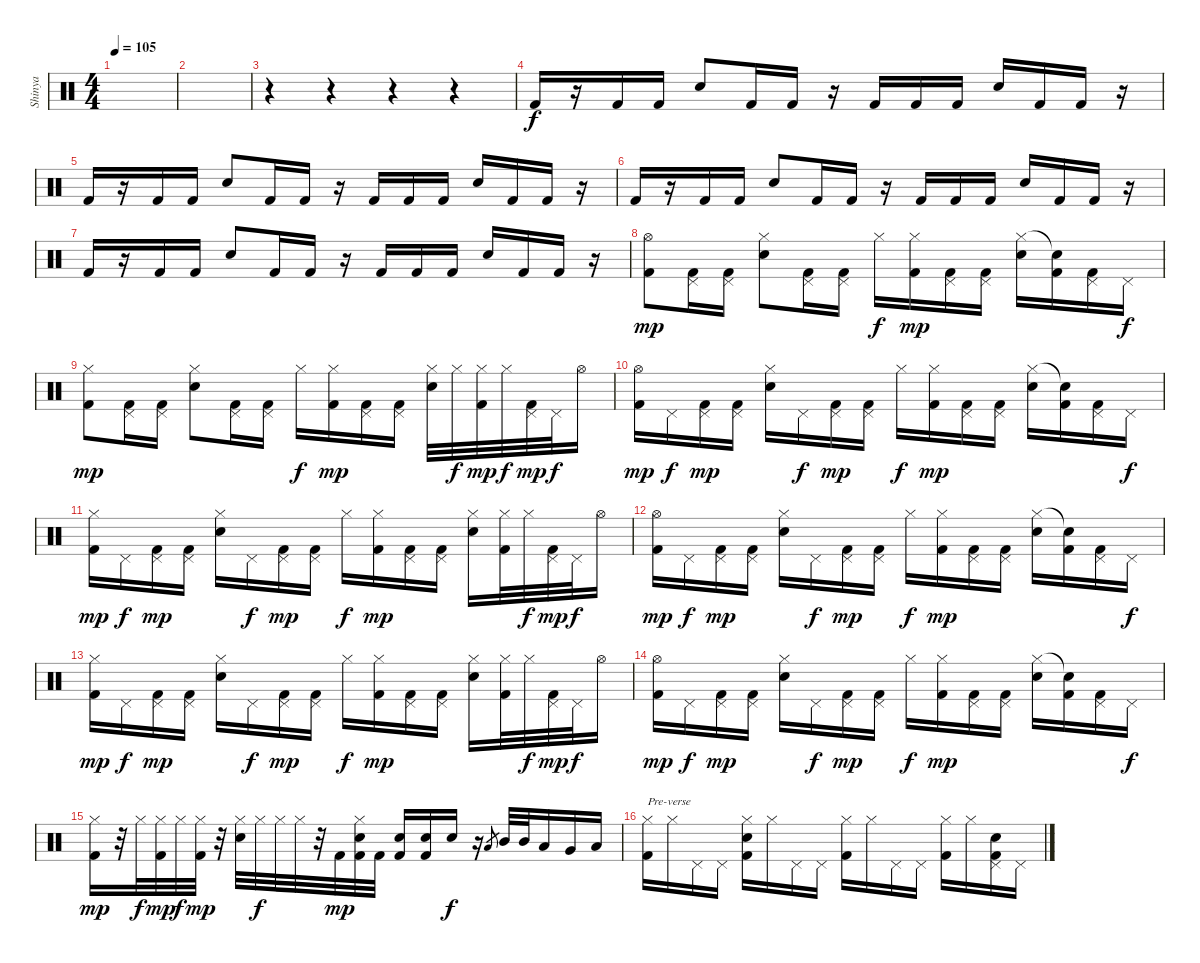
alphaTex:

\track ("Shinya" "Shinya") {instrument percussion}
\staff {score}
\articulation defaults
\ts (4 4)
\tempo 105
\clef neutral
\ks c
|
|
r.4 r.4 r.4 r.4 |
"Kick (hit) 2".16{volume 8} r.16 "Kick (hit) 2".16 "Kick (hit) 2".16 "Electric Snare (hit)".8{volume 11} "Kick (hit) 2".16 "Kick (hit) 2".16 r.16 "Kick (hit) 2".16 "Kick (hit) 2".16 "Kick (hit) 2".16 "Electric Snare (hit)".16 "Kick (hit) 2".16 "Kick (hit) 2".16 r.16 |
"Kick (hit) 2".16 r.16 "Kick (hit) 2".16 "Kick (hit) 2".16 "Electric Snare (hit)".8 "Kick (hit) 2".16 "Kick (hit) 2".16 r.16 "Kick (hit) 2".16 "Kick (hit) 2".16 "Kick (hit) 2".16 "Electric Snare (hit)".16 "Kick (hit) 2".16 "Kick (hit) 2".16 r.16 |
"Kick (hit) 2".16 r.16 "Kick (hit) 2".16 "Kick (hit) 2".16 "Electric Snare (hit)".8 "Kick (hit) 2".16 "Kick (hit) 2".16 r.16 "Kick (hit) 2".16 "Kick (hit) 2".16 "Kick (hit) 2".16 "Electric Snare (hit)".16 "Kick (hit) 2".16 "Kick (hit) 2".16 r.16 |
"Kick (hit) 2".16{volume 14} r.16 "Kick (hit) 2".16 "Kick (hit) 2".16 "Electric Snare (hit)".8 "Kick (hit) 2".16 "Kick (hit) 2".16 r.16 "Kick (hit) 2".16 "Kick (hit) 2".16 "Kick (hit) 2".16 "Electric Snare (hit)".16 "Kick (hit) 2".16 "Kick (hit) 2".16 r.16 |
("Hi-Hat (open)" "Kick (hit) 2").8{dy mp} ("Pedal Hi-Hat (hit)" "Kick (hit) 2").16 ("Pedal Hi-Hat (hit)" "Kick (hit) 2").16 ("Hi-Hat (closed)" "Electric Snare (hit)").8 ("Pedal Hi-Hat (hit)" "Kick (hit) 2").16 ("Pedal Hi-Hat (hit)" "Kick (hit) 2").16 "Hi-Hat (closed)".16{dy f} ("Hi-Hat (closed)" "Kick (hit) 2").16{dy mp} ("Pedal Hi-Hat (hit)" "Kick (hit) 2").16 ("Pedal Hi-Hat (hit)" "Kick (hit) 2").16 ("Hi-Hat (closed)" "Electric Snare (hit)").16 ("Snare (hit)"{t} "Kick (hit) 2").16 ("Pedal Hi-Hat (hit)" "Kick (hit) 2").16 "Pedal Hi-Hat (hit)".16{dy f} |
("Hi-Hat (closed)" "Kick (hit) 2").8{dy mp} ("Pedal Hi-Hat (hit)" "Kick (hit) 2").16 ("Pedal Hi-Hat (hit)" "Kick (hit) 2").16 ("Hi-Hat (closed)" "Electric Snare (hit)").8 ("Pedal Hi-Hat (hit)" "Kick (hit) 2").16 ("Pedal Hi-Hat (hit)" "Kick (hit) 2").16 "Hi-Hat (closed)".16{dy f} ("Hi-Hat (closed)" "Kick (hit) 2").16{dy mp} ("Pedal Hi-Hat (hit)" "Kick (hit) 2").16 ("Pedal Hi-Hat (hit)" "Kick (hit) 2").16 ("Hi-Hat (closed)" "Electric Snare (hit)").32 "Hi-Hat (closed)".32{dy f} ("Hi-Hat (closed)" "Kick (hit) 2").32{dy mp} "Hi-Hat (closed)".32{dy f} ("Pedal Hi-Hat (hit)" "Kick (hit) 2").32{dy mp} "Pedal Hi-Hat (hit)".32{dy f} "Hi-Hat (open)".16 |
("Hi-Hat (open)" "Kick (hit) 2").16{dy mp} "Pedal Hi-Hat (hit)".16{dy f} ("Pedal Hi-Hat (hit)" "Kick (hit) 2").16{dy mp} ("Pedal Hi-Hat (hit)" "Kick (hit) 2").16 ("Hi-Hat (closed)" "Electric Snare (hit)").16 "Pedal Hi-Hat (hit)".16{dy f} ("Pedal Hi-Hat (hit)" "Kick (hit) 2").16{dy mp} ("Pedal Hi-Hat (hit)" "Kick (hit) 2").16 "Hi-Hat (closed)".16{dy f} ("Hi-Hat (closed)" "Kick (hit) 2").16{dy mp} ("Pedal Hi-Hat (hit)" "Kick (hit) 2").16 ("Pedal Hi-Hat (hit)" "Kick (hit) 2").16 ("Hi-Hat (closed)" "Electric Snare (hit)").16 ("Snare (hit)"{t} "Kick (hit) 2").16 ("Pedal Hi-Hat (hit)" "Kick (hit) 2").16 "Pedal Hi-Hat (hit)".16{dy f} |
("Hi-Hat (closed)" "Kick (hit) 2").16{dy mp} "Pedal Hi-Hat (hit)".16{dy f} ("Pedal Hi-Hat (hit)" "Kick (hit) 2").16{dy mp} ("Pedal Hi-Hat (hit)" "Kick (hit) 2").16 ("Hi-Hat (closed)" "Electric Snare (hit)").16 "Pedal Hi-Hat (hit)".16{dy f} ("Pedal Hi-Hat (hit)" "Kick (hit) 2").16{dy mp} ("Pedal Hi-Hat (hit)" "Kick (hit) 2").16 "Hi-Hat (closed)".16{dy f} ("Hi-Hat (closed)" "Kick (hit) 2").16{dy mp} ("Pedal Hi-Hat (hit)" "Kick (hit) 2").16 ("Pedal Hi-Hat (hit)" "Kick (hit) 2").16 ("Hi-Hat (closed)" "Electric Snare (hit)").16 ("Hi-Hat (closed)" "Kick (hit) 2").32 "Hi-Hat (closed)".32{dy f} ("Pedal Hi-Hat (hit)" "Kick (hit) 2").32{dy mp} "Pedal Hi-Hat (hit)".32{dy f} "Hi-Hat (open)".16 |
("Hi-Hat (open)" "Kick (hit) 2").16{dy mp} "Pedal Hi-Hat (hit)".16{dy f} ("Pedal Hi-Hat (hit)" "Kick (hit) 2").16{dy mp} ("Pedal Hi-Hat (hit)" "Kick (hit) 2").16 ("Hi-Hat (closed)" "Electric Snare (hit)").16 "Pedal Hi-Hat (hit)".16{dy f} ("Pedal Hi-Hat (hit)" "Kick (hit) 2").16{dy mp} ("Pedal Hi-Hat (hit)" "Kick (hit) 2").16 "Hi-Hat (closed)".16{dy f} ("Hi-Hat (closed)" "Kick (hit) 2").16{dy mp} ("Pedal Hi-Hat (hit)" "Kick (hit) 2").16 ("Pedal Hi-Hat (hit)" "Kick (hit) 2").16 ("Hi-Hat (closed)" "Electric Snare (hit)").16 ("Snare (hit)"{t} "Kick (hit) 2").16 ("Pedal Hi-Hat (hit)" "Kick (hit) 2").16 "Pedal Hi-Hat (hit)".16{dy f} |
("Hi-Hat (closed)" "Kick (hit) 2").16{dy mp} "Pedal Hi-Hat (hit)".16{dy f} ("Pedal Hi-Hat (hit)" "Kick (hit) 2").16{dy mp} ("Pedal Hi-Hat (hit)" "Kick (hit) 2").16 ("Hi-Hat (closed)" "Electric Snare (hit)").16 "Pedal Hi-Hat (hit)".16{dy f} ("Pedal Hi-Hat (hit)" "Kick (hit) 2").16{dy mp} ("Pedal Hi-Hat (hit)" "Kick (hit) 2").16 "Hi-Hat (closed)".16{dy f} ("Hi-Hat (closed)" "Kick (hit) 2").16{dy mp} ("Pedal Hi-Hat (hit)" "Kick (hit) 2").16 ("Pedal Hi-Hat (hit)" "Kick (hit) 2").16 ("Hi-Hat (closed)" "Electric Snare (hit)").16 ("Hi-Hat (closed)" "Kick (hit) 2").32 "Hi-Hat (closed)".32{dy f} ("Pedal Hi-Hat (hit)" "Kick (hit) 2").32{dy mp} "Pedal Hi-Hat (hit)".32{dy f} "Hi-Hat (open)".16 |
("Hi-Hat (open)" "Kick (hit) 2").16{dy mp} "Pedal Hi-Hat (hit)".16{dy f} ("Pedal Hi-Hat (hit)" "Kick (hit) 2").16{dy mp} ("Pedal Hi-Hat (hit)" "Kick (hit) 2").16 ("Hi-Hat (closed)" "Electric Snare (hit)").16 "Pedal Hi-Hat (hit)".16{dy f} ("Pedal Hi-Hat (hit)" "Kick (hit) 2").16{dy mp} ("Pedal Hi-Hat (hit)" "Kick (hit) 2").16 "Hi-Hat (closed)".16{dy f} ("Hi-Hat (closed)" "Kick (hit) 2").16{dy mp} ("Pedal Hi-Hat (hit)" "Kick (hit) 2").16 ("Pedal Hi-Hat (hit)" "Kick (hit) 2").16 ("Hi-Hat (closed)" "Electric Snare (hit)").16 ("Snare (hit)"{t} "Kick (hit) 2").16 ("Pedal Hi-Hat (hit)" "Kick (hit) 2").16 "Pedal Hi-Hat (hit)".16{dy f} |
("Hi-Hat (closed)" "Kick (hit) 2").16{dy mp} r.32 "Hi-Hat (closed)".32{dy f} ("Hi-Hat (closed)" "Kick (hit) 2").32{dy mp} "Hi-Hat (closed)".32{dy f} ("Hi-Hat (closed)" "Kick (hit) 2").32{dy mp} r.32 ("Hi-Hat (closed)" "Electric Snare (hit)").32 "Hi-Hat (closed)".32{dy f} "Hi-Hat (closed)".32 "Hi-Hat (closed)".32 r.32 "Kick (hit) 2".32{dy mp} ("Hi-Hat (closed)" "Electric Snare (hit)" "Kick (hit) 2").32 "Kick (hit) 2".32 ("Electric Snare (hit)" "Kick (hit) 2").16 ("Electric Snare (hit)" "Kick (hit) 2").16 "Electric Snare (hit)".16{dy f} r.16 "Low Tom (hit)".8{gr} "Mid Tom (hit)".32 "Mid Tom (hit)".32 "Low Tom (hit)".16 "Very Low Tom (hit)".16 "Low Floor Tom (hit)".16 |
\section ("" "")
("Hi-Hat (closed)" "Kick (hit) 2").16{txt "Pre-verse"} "Hi-Hat (closed)".16 "Pedal Hi-Hat (hit)".16 "Pedal Hi-Hat (hit)".16 ("Hi-Hat (closed)" "Electric Snare (hit)" "Kick (hit) 2").16 "Hi-Hat (closed)".16 "Pedal Hi-Hat (hit)".16 "Pedal Hi-Hat (hit)".16 ("Hi-Hat (closed)" "Kick (hit) 2").16 "Hi-Hat (closed)".16 "Pedal Hi-Hat (hit)".16 "Pedal Hi-Hat (hit)".16 ("Hi-Hat (closed)" "Kick (hit) 2").16 "Hi-Hat (closed)".16 ("Pedal Hi-Hat (hit)" "Electric Snare (hit)" "Kick (hit) 2").16 "Pedal Hi-Hat (hit)".16
